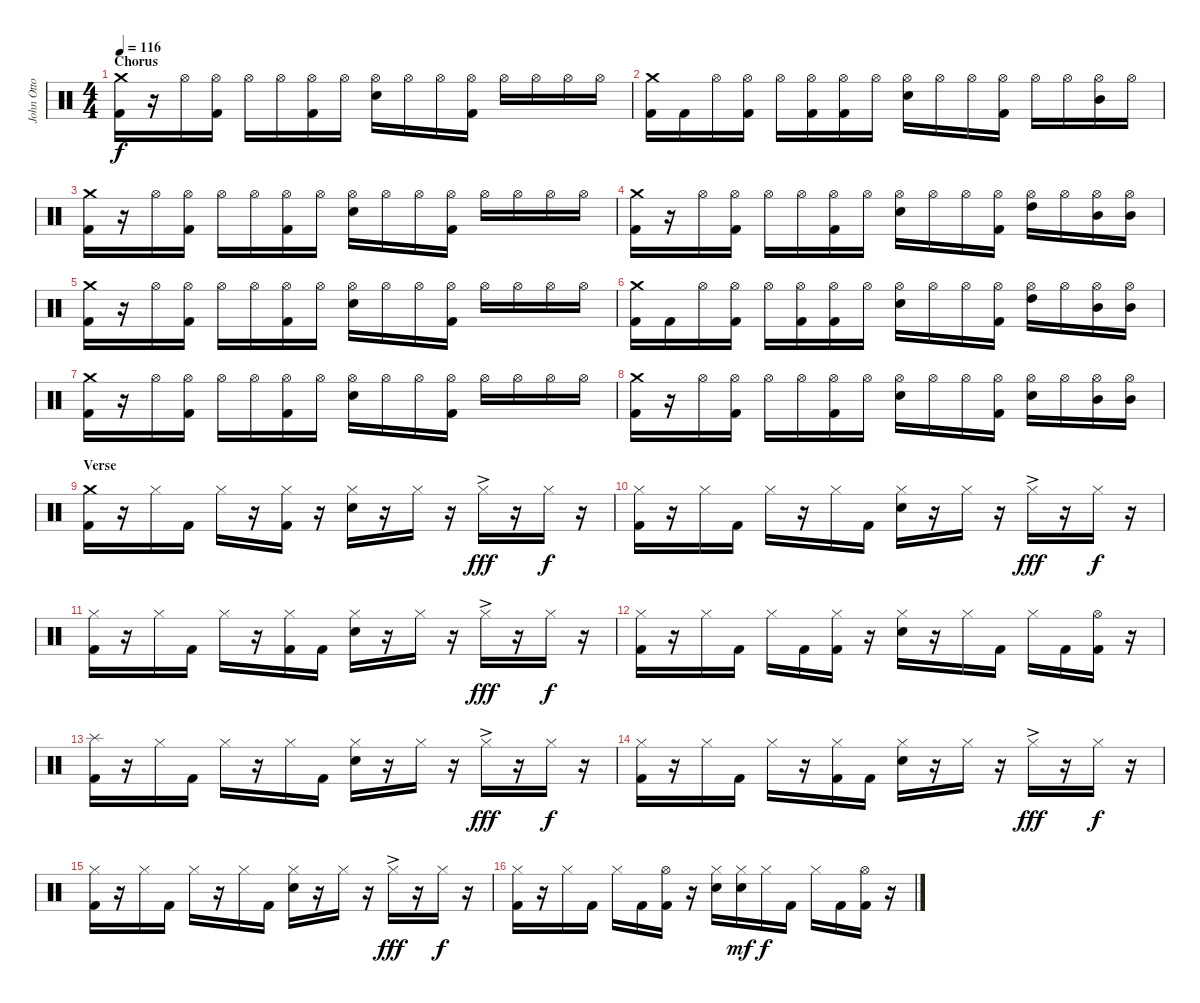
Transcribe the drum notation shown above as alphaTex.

\track ("John Otto - Drums" "John Otto ") {instrument percussion}
\staff {score}
\articulation defaults
\ts (4 4)
\section ("" "Chorus")
\tempo 116
\clef neutral
\ks c
("Crash medium (hit)" "Kick (hit) 2").16{dy f} r.16 "Hi-Hat (open)".16 ("Hi-Hat (open)" "Kick (hit) 2").16 "Hi-Hat (open)".16 "Hi-Hat (open)".16 ("Hi-Hat (open)" "Kick (hit) 2").16 "Hi-Hat (open)".16 ("Hi-Hat (open)" "Electric Snare (hit)").16 "Hi-Hat (open)".16 "Hi-Hat (open)".16 ("Hi-Hat (open)" "Kick (hit) 2").16 "Hi-Hat (open)".16 "Hi-Hat (open)".16 "Hi-Hat (open)".16 "Hi-Hat (open)".16 |
("Crash medium (hit)" "Kick (hit) 2").16 "Kick (hit) 2".16 "Hi-Hat (open)".16 ("Hi-Hat (open)" "Kick (hit) 2").16 "Hi-Hat (open)".16 ("Hi-Hat (open)" "Kick (hit) 2").16 ("Hi-Hat (open)" "Kick (hit) 2").16 "Hi-Hat (open)".16 ("Hi-Hat (open)" "Electric Snare (hit)").16 "Hi-Hat (open)".16 "Hi-Hat (open)".16 ("Hi-Hat (open)" "Kick (hit) 2").16 "Hi-Hat (open)".16 "Hi-Hat (open)".16 ("Hi-Hat (open)" "Mid Tom (hit)").16 "Hi-Hat (open)".16 |
("Crash medium (hit)" "Kick (hit) 2").16 r.16 "Hi-Hat (open)".16 ("Hi-Hat (open)" "Kick (hit) 2").16 "Hi-Hat (open)".16 "Hi-Hat (open)".16 ("Hi-Hat (open)" "Kick (hit) 2").16 "Hi-Hat (open)".16 ("Hi-Hat (open)" "Electric Snare (hit)").16 "Hi-Hat (open)".16 "Hi-Hat (open)".16 ("Hi-Hat (open)" "Kick (hit) 2").16 "Hi-Hat (open)".16 "Hi-Hat (open)".16 "Hi-Hat (open)".16 "Hi-Hat (open)".16 |
("Crash medium (hit)" "Kick (hit) 2").16 r.16 "Hi-Hat (open)".16 ("Hi-Hat (open)" "Kick (hit) 2").16 "Hi-Hat (open)".16 "Hi-Hat (open)".16 ("Hi-Hat (open)" "Kick (hit) 2").16 "Hi-Hat (open)".16 ("Hi-Hat (open)" "Electric Snare (hit)").16 "Hi-Hat (open)".16 "Hi-Hat (open)".16 ("Hi-Hat (open)" "Kick (hit) 2").16 ("Hi-Hat (open)" "High Tom (hit)").16 "Hi-Hat (open)".16 ("Hi-Hat (open)" "Mid Tom (hit)").16 ("Hi-Hat (open)" "Mid Tom (hit)").16 |
("Crash medium (hit)" "Kick (hit) 2").16 r.16 "Hi-Hat (open)".16 ("Hi-Hat (open)" "Kick (hit) 2").16 "Hi-Hat (open)".16 "Hi-Hat (open)".16 ("Hi-Hat (open)" "Kick (hit) 2").16 "Hi-Hat (open)".16 ("Hi-Hat (open)" "Electric Snare (hit)").16 "Hi-Hat (open)".16 "Hi-Hat (open)".16 ("Hi-Hat (open)" "Kick (hit) 2").16 "Hi-Hat (open)".16 "Hi-Hat (open)".16 "Hi-Hat (open)".16 "Hi-Hat (open)".16 |
("Crash medium (hit)" "Kick (hit) 2").16 "Kick (hit) 2".16 "Hi-Hat (open)".16 ("Hi-Hat (open)" "Kick (hit) 2").16 "Hi-Hat (open)".16 ("Hi-Hat (open)" "Kick (hit) 2").16 ("Hi-Hat (open)" "Kick (hit) 2").16 "Hi-Hat (open)".16 ("Hi-Hat (open)" "Electric Snare (hit)").16 "Hi-Hat (open)".16 "Hi-Hat (open)".16 ("Hi-Hat (open)" "Kick (hit) 2").16 ("Hi-Hat (open)" "High Tom (hit)").16 "Hi-Hat (open)".16 ("Hi-Hat (open)" "Mid Tom (hit)").16 ("Hi-Hat (open)" "Mid Tom (hit)").16 |
("Crash medium (hit)" "Kick (hit) 2").16 r.16 "Hi-Hat (open)".16 ("Hi-Hat (open)" "Kick (hit) 2").16 "Hi-Hat (open)".16 "Hi-Hat (open)".16 ("Hi-Hat (open)" "Kick (hit) 2").16 "Hi-Hat (open)".16 ("Hi-Hat (open)" "Electric Snare (hit)").16 "Hi-Hat (open)".16 "Hi-Hat (open)".16 ("Hi-Hat (open)" "Kick (hit) 2").16 "Hi-Hat (open)".16 "Hi-Hat (open)".16 "Hi-Hat (open)".16 "Hi-Hat (open)".16 |
("Crash medium (hit)" "Kick (hit) 2").16 r.16 "Hi-Hat (open)".16 ("Hi-Hat (open)" "Kick (hit) 2").16 "Hi-Hat (open)".16 "Hi-Hat (open)".16 ("Hi-Hat (open)" "Kick (hit) 2").16 "Hi-Hat (open)".16 ("Hi-Hat (open)" "Electric Snare (hit)").16 "Hi-Hat (open)".16 "Hi-Hat (open)".16 ("Hi-Hat (open)" "Kick (hit) 2").16 ("Hi-Hat (open)" "Electric Snare (hit)").16 "Hi-Hat (open)".16 ("Hi-Hat (open)" "Mid Tom (hit)").16 ("Hi-Hat (open)" "Mid Tom (hit)").16 |
\section ("" "Verse")
("Crash medium (hit)" "Kick (hit) 2").16 r.16 "Hi-Hat (closed)".16 "Kick (hit) 2".16 "Hi-Hat (closed)".16 r.16 ("Hi-Hat (closed)" "Kick (hit) 2").16 r.16 ("Hi-Hat (closed)" "Electric Snare (hit)").16 r.16 "Hi-Hat (closed)".16 r.16 "Hi-Hat (closed)"{ac}.16{dy fff} r.16 "Hi-Hat (closed)".16{dy f} r.16 |
("Hi-Hat (closed)" "Kick (hit) 2").16 r.16 "Hi-Hat (closed)".16 "Kick (hit) 2".16 "Hi-Hat (closed)".16 r.16 "Hi-Hat (closed)".16 "Kick (hit) 2".16 ("Hi-Hat (closed)" "Electric Snare (hit)").16 r.16 "Hi-Hat (closed)".16 r.16 "Hi-Hat (closed)"{ac}.16{dy fff} r.16 "Hi-Hat (closed)".16{dy f} r.16 |
("Hi-Hat (closed)" "Kick (hit) 2").16 r.16 "Hi-Hat (closed)".16 "Kick (hit) 2".16 "Hi-Hat (closed)".16 r.16 ("Hi-Hat (closed)" "Kick (hit) 2").16 "Kick (hit) 2".16 ("Hi-Hat (closed)" "Electric Snare (hit)").16 r.16 "Hi-Hat (closed)".16 r.16 "Hi-Hat (closed)"{ac}.16{dy fff} r.16 "Hi-Hat (closed)".16{dy f} r.16 |
("Hi-Hat (closed)" "Kick (hit) 2").16 r.16 "Hi-Hat (closed)".16 "Kick (hit) 2".16 "Hi-Hat (closed)".16 "Kick (hit) 2".16 ("Hi-Hat (closed)" "Kick (hit) 2").16 r.16 ("Hi-Hat (closed)" "Electric Snare (hit)").16 r.16 "Hi-Hat (closed)".16 "Kick (hit) 2".16 "Hi-Hat (closed)".16 "Kick (hit) 2".16 ("Hi-Hat (open)" "Kick (hit) 2").16 r.16 |
("Splash (hit)" "Kick (hit) 2").16 r.16 "Hi-Hat (closed)".16 "Kick (hit) 2".16 "Hi-Hat (closed)".16 r.16 "Hi-Hat (closed)".16 "Kick (hit) 2".16 ("Hi-Hat (closed)" "Electric Snare (hit)").16 r.16 "Hi-Hat (closed)".16 r.16 "Hi-Hat (closed)"{ac}.16{dy fff} r.16 "Hi-Hat (closed)".16{dy f} r.16 |
("Hi-Hat (closed)" "Kick (hit) 2").16 r.16 "Hi-Hat (closed)".16 "Kick (hit) 2".16 "Hi-Hat (closed)".16 r.16 ("Hi-Hat (closed)" "Kick (hit) 2").16 "Kick (hit) 2".16 ("Hi-Hat (closed)" "Electric Snare (hit)").16 r.16 "Hi-Hat (closed)".16 r.16 "Hi-Hat (closed)"{ac}.16{dy fff} r.16 "Hi-Hat (closed)".16{dy f} r.16 |
("Hi-Hat (closed)" "Kick (hit) 2").16 r.16 "Hi-Hat (closed)".16 "Kick (hit) 2".16 "Hi-Hat (closed)".16 r.16 "Hi-Hat (closed)".16 "Kick (hit) 2".16 ("Hi-Hat (closed)" "Electric Snare (hit)").16 r.16 "Hi-Hat (closed)".16 r.16 "Hi-Hat (closed)"{ac}.16{dy fff} r.16 "Hi-Hat (closed)".16{dy f} r.16 |
("Hi-Hat (closed)" "Kick (hit) 2").16 r.16 "Hi-Hat (closed)".16 "Kick (hit) 2".16 "Hi-Hat (closed)".16 "Kick (hit) 2".16 ("Hi-Hat (open)" "Kick (hit) 2").16 r.16 ("Hi-Hat (closed)" "Electric Snare (hit)").16 ("Hi-Hat (closed)" "Electric Snare (hit)").16{dy mf} "Hi-Hat (closed)".16{dy f} "Kick (hit) 2".16 "Hi-Hat (closed)".16 "Kick (hit) 2".16 ("Hi-Hat (open)" "Kick (hit) 2").16 r.16
